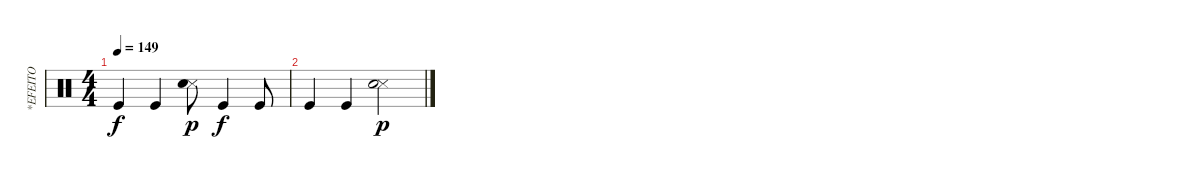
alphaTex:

\track ("*EFEITO" "*EFEITO") {instrument percussion}
\staff {score}
\articulation defaults
\ts (4 4)
\tempo 149
\clef neutral
\ks c "Kick (hit)".4{dy f} "Kick (hit)".4
("Snare (side stick) 3" "Electric Snare (hit)").8{dy p} "Kick (hit)".4{dy f} "Kick (hit)".8 |
"Kick (hit)".4 "Kick (hit)".4 ("Snare (side stick) 3" "Electric Snare (hit)").2{dy p}
